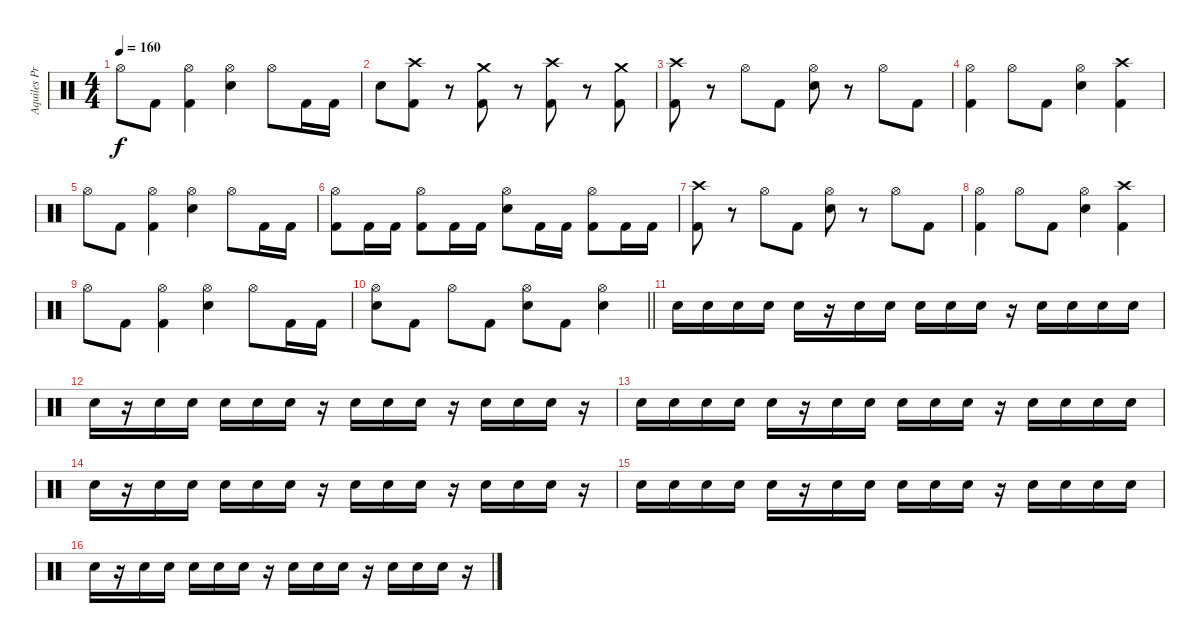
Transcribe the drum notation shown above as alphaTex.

\track ("Aquiles Priester" "Aquiles Pr") {instrument percussion}
\staff {score}
\articulation defaults
\ts (4 4)
\tempo 160
\clef neutral
\ks c "Hi-Hat (open)".8{dy f} "Kick (hit) 2".8
("Hi-Hat (open)" "Kick (hit) 2").4 ("Hi-Hat (open)" "Electric Snare (hit)").4 "Hi-Hat (open)".8 "Kick (hit) 2".16 "Kick (hit) 2".16 |
"Electric Snare (hit)".8 ("Crash high (hit)" "Kick (hit) 2").8 r.8 ("Crash medium (hit)" "Kick (hit) 2").8 r.8 ("Crash high (hit)" "Kick (hit) 2").8 r.8 ("Crash medium (hit)" "Kick (hit) 2").8 |
("Crash high (hit)" "Kick (hit) 2").8 r.8 "Hi-Hat (open)".8 "Kick (hit) 2".8 ("Hi-Hat (open)" "Electric Snare (hit)").8 r.8 "Hi-Hat (open)".8 "Kick (hit) 2".8 |
("Hi-Hat (open)" "Kick (hit) 2").4 "Hi-Hat (open)".8 "Kick (hit) 2".8 ("Hi-Hat (open)" "Electric Snare (hit)").4 ("Crash high (hit)" "Kick (hit) 2").4 |
"Hi-Hat (open)".8 "Kick (hit) 2".8 ("Hi-Hat (open)" "Kick (hit) 2").4 ("Hi-Hat (open)" "Electric Snare (hit)").4 "Hi-Hat (open)".8 "Kick (hit) 2".16 "Kick (hit) 2".16 |
("Hi-Hat (open)" "Kick (hit) 2").8 "Kick (hit) 2".16 "Kick (hit) 2".16 ("Hi-Hat (open)" "Kick (hit) 2").8 "Kick (hit) 2".16 "Kick (hit) 2".16 ("Hi-Hat (open)" "Electric Snare (hit)").8 "Kick (hit) 2".16 "Kick (hit) 2".16 ("Hi-Hat (open)" "Kick (hit) 2").8 "Kick (hit) 2".16 "Kick (hit) 2".16 |
("Crash high (hit)" "Kick (hit) 2").8 r.8 "Hi-Hat (open)".8 "Kick (hit) 2".8 ("Hi-Hat (open)" "Electric Snare (hit)").8 r.8 "Hi-Hat (open)".8 "Kick (hit) 2".8 |
("Hi-Hat (open)" "Kick (hit) 2").4 "Hi-Hat (open)".8 "Kick (hit) 2".8 ("Hi-Hat (open)" "Electric Snare (hit)").4 ("Crash high (hit)" "Kick (hit) 2").4 |
"Hi-Hat (open)".8 "Kick (hit) 2".8 ("Hi-Hat (open)" "Kick (hit) 2").4 ("Hi-Hat (open)" "Electric Snare (hit)").4 "Hi-Hat (open)".8 "Kick (hit) 2".16 "Kick (hit) 2".16 |
\barLineRight lightlight
("Hi-Hat (open)" "Electric Snare (hit)").8 "Kick (hit) 2".8 "Hi-Hat (open)".8 "Kick (hit) 2".8 ("Hi-Hat (open)" "Electric Snare (hit)").8 "Kick (hit) 2".8 ("Hi-Hat (open)" "Electric Snare (hit)").4 |
"Electric Snare (hit)".16 "Electric Snare (hit)".16 "Electric Snare (hit)".16 "Electric Snare (hit)".16 "Electric Snare (hit)".16 r.16 "Electric Snare (hit)".16 "Electric Snare (hit)".16 "Electric Snare (hit)".16 "Electric Snare (hit)".16 "Electric Snare (hit)".16 r.16 "Electric Snare (hit)".16 "Electric Snare (hit)".16 "Electric Snare (hit)".16 "Electric Snare (hit)".16 |
"Electric Snare (hit)".16 r.16 "Electric Snare (hit)".16 "Electric Snare (hit)".16 "Electric Snare (hit)".16 "Electric Snare (hit)".16 "Electric Snare (hit)".16 r.16 "Electric Snare (hit)".16 "Electric Snare (hit)".16 "Electric Snare (hit)".16 r.16 "Electric Snare (hit)".16 "Electric Snare (hit)".16 "Electric Snare (hit)".16 r.16 |
"Electric Snare (hit)".16 "Electric Snare (hit)".16 "Electric Snare (hit)".16 "Electric Snare (hit)".16 "Electric Snare (hit)".16 r.16 "Electric Snare (hit)".16 "Electric Snare (hit)".16 "Electric Snare (hit)".16 "Electric Snare (hit)".16 "Electric Snare (hit)".16 r.16 "Electric Snare (hit)".16 "Electric Snare (hit)".16 "Electric Snare (hit)".16 "Electric Snare (hit)".16 |
"Electric Snare (hit)".16 r.16 "Electric Snare (hit)".16 "Electric Snare (hit)".16 "Electric Snare (hit)".16 "Electric Snare (hit)".16 "Electric Snare (hit)".16 r.16 "Electric Snare (hit)".16 "Electric Snare (hit)".16 "Electric Snare (hit)".16 r.16 "Electric Snare (hit)".16 "Electric Snare (hit)".16 "Electric Snare (hit)".16 r.16 |
"Electric Snare (hit)".16 "Electric Snare (hit)".16 "Electric Snare (hit)".16 "Electric Snare (hit)".16 "Electric Snare (hit)".16 r.16 "Electric Snare (hit)".16 "Electric Snare (hit)".16 "Electric Snare (hit)".16 "Electric Snare (hit)".16 "Electric Snare (hit)".16 r.16 "Electric Snare (hit)".16 "Electric Snare (hit)".16 "Electric Snare (hit)".16 "Electric Snare (hit)".16 |
"Electric Snare (hit)".16 r.16 "Electric Snare (hit)".16 "Electric Snare (hit)".16 "Electric Snare (hit)".16 "Electric Snare (hit)".16 "Electric Snare (hit)".16 r.16 "Electric Snare (hit)".16 "Electric Snare (hit)".16 "Electric Snare (hit)".16 r.16 "Electric Snare (hit)".16 "Electric Snare (hit)".16 "Electric Snare (hit)".16 r.16
